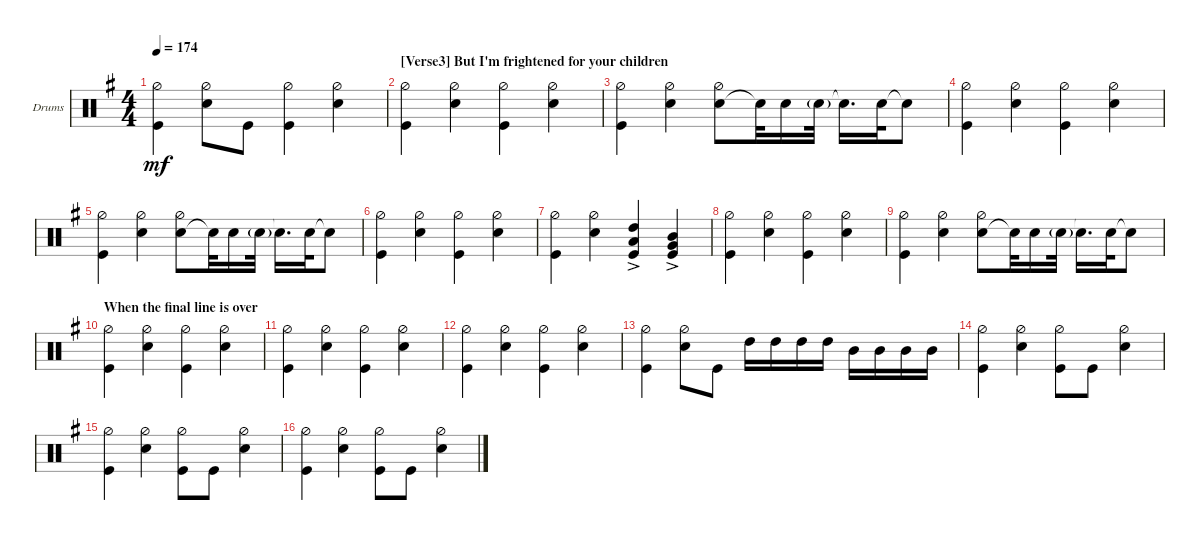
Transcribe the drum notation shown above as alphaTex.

\bracketExtendMode groupsimilarinstruments
\firstSystemTrackNameOrientation horizontal
\otherSystemsTrackNameOrientation horizontal
\track ("Drumkit" "Drums") {instrument percussion}
\staff {score}
\articulation defaults
\ts (4 4)
\tempo 174
\clef neutral
\scale
0.333333
\ks eminor
("Kick (hit)" "Hi-Hat (half)").4{dy mf} ("Snare (hit) 2" "Hi-Hat (half)").8 "Kick (hit)".8 ("Kick (hit)" "Hi-Hat (half)").4 ("Snare (hit) 2" "Hi-Hat (half)").4 |
\section ("" "[Verse3] But I'm frightened for your children")
\scale
0.333333 ("Kick (hit)" "Hi-Hat (half)").4 ("Snare (hit) 2" "Hi-Hat (half)").4 ("Kick (hit)" "Hi-Hat (half)").4 ("Snare (hit) 2" "Hi-Hat (half)").4 |
\scale
0.333333 ("Kick (hit)" "Hi-Hat (half)").4 ("Snare (hit) 2" "Hi-Hat (half)").4 ("Snare (hit) 2" "Hi-Hat (half)").8 "Snare (hit) 2"{t}.32 "Snare (hit) 2".16 "Snare (hit) 2"{g}.32 "Snare (hit) 2"{t}.16{d} "Snare (hit) 2".32 "Snare (hit) 2"{t}.8 |
\scale
0.333333 ("Kick (hit)" "Hi-Hat (half)").4 ("Snare (hit) 2" "Hi-Hat (half)").4 ("Kick (hit)" "Hi-Hat (half)").4 ("Snare (hit) 2" "Hi-Hat (half)").4 |
\scale
0.333333 ("Kick (hit)" "Hi-Hat (half)").4 ("Snare (hit) 2" "Hi-Hat (half)").4 ("Snare (hit) 2" "Hi-Hat (half)").8 "Snare (hit) 2"{t}.32 "Snare (hit) 2".16 "Snare (hit) 2"{g}.32 "Snare (hit) 2"{t}.16{d} "Snare (hit) 2".32 "Snare (hit) 2"{t}.8 |
\scale
0.333333 ("Kick (hit)" "Hi-Hat (half)").4 ("Snare (hit) 2" "Hi-Hat (half)").4 ("Kick (hit)" "Hi-Hat (half)").4 ("Snare (hit) 2" "Hi-Hat (half)").4 |
\scale
0.333333 ("Kick (hit)" "Hi-Hat (half)").4 ("Snare (hit) 2" "Hi-Hat (half)").4 ("High Tom (hit)" "Low Tom (hit)"{ac} "Kick (hit)").4 ("Mid Tom (hit)" "Very Low Tom (hit)"{ac} "Kick (hit)").4 |
\scale
0.333333 ("Kick (hit)" "Hi-Hat (half)").4 ("Snare (hit) 2" "Hi-Hat (half)").4 ("Kick (hit)" "Hi-Hat (half)").4 ("Snare (hit) 2" "Hi-Hat (half)").4 |
\scale
0.333333 ("Kick (hit)" "Hi-Hat (half)").4 ("Snare (hit) 2" "Hi-Hat (half)").4 ("Snare (hit) 2" "Hi-Hat (half)").8 "Snare (hit) 2"{t}.32 "Snare (hit) 2".16 "Snare (hit) 2"{g}.32 "Snare (hit) 2"{t}.16{d} "Snare (hit) 2".32 "Snare (hit) 2"{t}.8 |
\section ("" "When the final line is over")
\scale
0.333333 ("Kick (hit)" "Hi-Hat (half)").4 ("Snare (hit) 2" "Hi-Hat (half)").4 ("Kick (hit)" "Hi-Hat (half)").4 ("Snare (hit) 2" "Hi-Hat (half)").4 |
\scale
0.333333 ("Kick (hit)" "Hi-Hat (half)").4 ("Snare (hit) 2" "Hi-Hat (half)").4 ("Kick (hit)" "Hi-Hat (half)").4 ("Snare (hit) 2" "Hi-Hat (half)").4 |
\scale
0.333333 ("Kick (hit)" "Hi-Hat (half)").4 ("Snare (hit) 2" "Hi-Hat (half)").4 ("Kick (hit)" "Hi-Hat (half)").4 ("Snare (hit) 2" "Hi-Hat (half)").4 |
\scale
0.333333 ("Kick (hit)" "Hi-Hat (half)").4 ("Snare (hit) 2" "Hi-Hat (half)").8 "Kick (hit)".8 "High Tom (hit)".16 "High Tom (hit)".16 "High Tom (hit)".16 "High Tom (hit)".16 "Mid Tom (hit)".16 "Mid Tom (hit)".16 "Mid Tom (hit)".16 "Mid Tom (hit)".16 |
\scale
0.333333 ("Kick (hit)" "Hi-Hat (half)").4 ("Snare (hit) 2" "Hi-Hat (half)").4 ("Kick (hit)" "Hi-Hat (half)").8 "Kick (hit)".8 ("Snare (hit) 2" "Hi-Hat (half)").4 |
\scale
0.333333 ("Kick (hit)" "Hi-Hat (half)").4 ("Snare (hit) 2" "Hi-Hat (half)").4 ("Kick (hit)" "Hi-Hat (half)").8 "Kick (hit)".8 ("Snare (hit) 2" "Hi-Hat (half)").4 |
\scale
0.333333 ("Kick (hit)" "Hi-Hat (half)").4 ("Snare (hit) 2" "Hi-Hat (half)").4 ("Kick (hit)" "Hi-Hat (half)").8 "Kick (hit)".8 ("Snare (hit) 2" "Hi-Hat (half)").4
